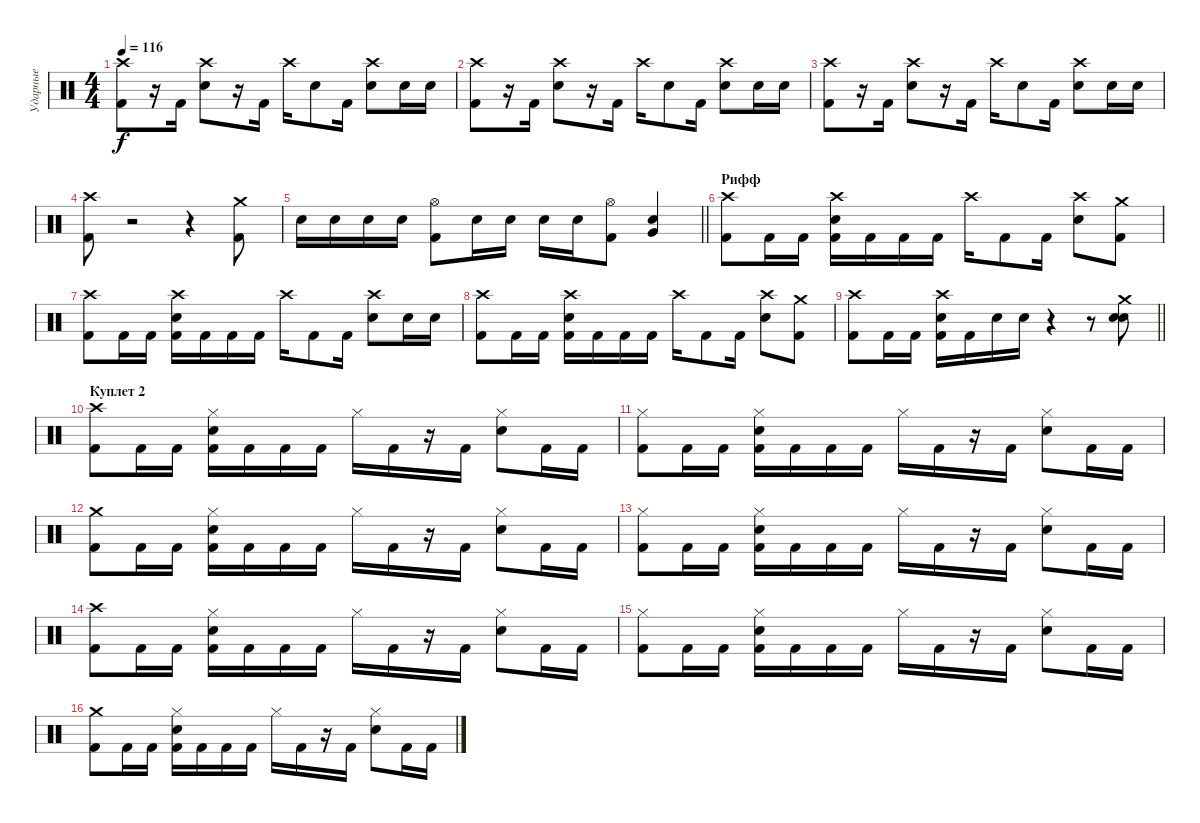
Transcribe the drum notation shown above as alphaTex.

\track ("Ударные" "Ударные") {instrument percussion}
\staff {score}
\articulation defaults
\ts (4 4)
\tempo 116
\clef neutral
\ks c
("Crash high (hit)" "Kick (hit) 2").8{dy f} r.16 "Kick (hit) 2".16 ("Crash high (hit)" "Snare (hit) 2").8 r.16 "Kick (hit) 2".16 "Crash high (hit)".16 "Snare (hit) 2".8 "Kick (hit) 2".16 ("Crash high (hit)" "Snare (hit) 2").8 "Snare (hit) 2".16 "Snare (hit) 2".16 |
("Crash high (hit)" "Kick (hit) 2").8 r.16 "Kick (hit) 2".16 ("Crash high (hit)" "Snare (hit) 2").8 r.16 "Kick (hit) 2".16 "Crash high (hit)".16 "Snare (hit) 2".8 "Kick (hit) 2".16 ("Crash high (hit)" "Snare (hit) 2").8 "Snare (hit) 2".16 "Snare (hit) 2".16 |
("Crash high (hit)" "Kick (hit) 2").8 r.16 "Kick (hit) 2".16 ("Crash high (hit)" "Snare (hit) 2").8 r.16 "Kick (hit) 2".16 "Crash high (hit)".16 "Snare (hit) 2".8 "Kick (hit) 2".16 ("Crash high (hit)" "Snare (hit) 2").8 "Snare (hit) 2".16 "Snare (hit) 2".16 |
("Crash high (hit)" "Kick (hit) 2").8 r.2 r.4 ("Crash medium (hit)" "Kick (hit) 2").8 |
\barLineRight lightlight "Snare (hit) 2".16 "Snare (hit) 2".16 "Snare (hit) 2".16 "Snare (hit) 2".16
("Hi-Hat (open)" "Kick (hit) 2").8 "Snare (hit) 2".16 "Snare (hit) 2".16 "Snare (hit) 2".16 "Snare (hit) 2".16 ("Hi-Hat (open)" "Kick (hit) 2").8 ("Very Low Tom (hit)" "Snare (hit) 2").4 |
\section ("" "Рифф")
("Crash high (hit)" "Kick (hit) 2").8 "Kick (hit) 2".16 "Kick (hit) 2".16 ("Crash high (hit)" "Snare (hit) 2" "Kick (hit) 2").16 "Kick (hit) 2".16 "Kick (hit) 2".16 "Kick (hit) 2".16 "Crash high (hit)".16 "Kick (hit) 2".8 "Kick (hit) 2".16 ("Crash high (hit)" "Snare (hit) 2").8 ("Crash medium (hit)" "Kick (hit) 2").8 |
("Crash high (hit)" "Kick (hit) 2").8 "Kick (hit) 2".16 "Kick (hit) 2".16 ("Crash high (hit)" "Snare (hit) 2" "Kick (hit) 2").16 "Kick (hit) 2".16 "Kick (hit) 2".16 "Kick (hit) 2".16 "Crash high (hit)".16 "Kick (hit) 2".8 "Kick (hit) 2".16 ("Crash high (hit)" "Snare (hit) 2").8 "Snare (hit) 2".16 "Snare (hit) 2".16 |
("Crash high (hit)" "Kick (hit) 2").8 "Kick (hit) 2".16 "Kick (hit) 2".16 ("Crash high (hit)" "Snare (hit) 2" "Kick (hit) 2").16 "Kick (hit) 2".16 "Kick (hit) 2".16 "Kick (hit) 2".16 "Crash high (hit)".16 "Kick (hit) 2".8 "Kick (hit) 2".16 ("Crash high (hit)" "Snare (hit) 2").8 ("Crash medium (hit)" "Kick (hit) 2").8 |
\barLineRight lightlight
("Crash high (hit)" "Kick (hit) 2").8 "Kick (hit) 2".16 "Kick (hit) 2".16 ("Crash high (hit)" "Snare (hit) 2" "Kick (hit) 2").16 "Kick (hit) 2".16 "Snare (hit) 2".16 "Snare (hit) 2".16 r.4 r.8 ("Crash medium (hit)" "Snare (hit) 2" "Snare (hit) 2").8 |
\section ("" "Куплет 2")
("Crash high (hit)" "Kick (hit) 2").8 "Kick (hit) 2".16 "Kick (hit) 2".16 ("Hi-Hat (closed)" "Snare (hit) 2" "Kick (hit) 2").16 "Kick (hit) 2".16 "Kick (hit) 2".16 "Kick (hit) 2".16 "Hi-Hat (closed)".16 "Kick (hit) 2".16 r.16 "Kick (hit) 2".16 ("Hi-Hat (closed)" "Snare (hit) 2").8 "Kick (hit) 2".16 "Kick (hit) 2".16 |
("Hi-Hat (closed)" "Kick (hit) 2").8 "Kick (hit) 2".16 "Kick (hit) 2".16 ("Hi-Hat (closed)" "Snare (hit) 2" "Kick (hit) 2").16 "Kick (hit) 2".16 "Kick (hit) 2".16 "Kick (hit) 2".16 "Hi-Hat (closed)".16 "Kick (hit) 2".16 r.16 "Kick (hit) 2".16 ("Hi-Hat (closed)" "Snare (hit) 2").8 "Kick (hit) 2".16 "Kick (hit) 2".16 |
("Crash medium (hit)" "Kick (hit) 2").8 "Kick (hit) 2".16 "Kick (hit) 2".16 ("Hi-Hat (closed)" "Snare (hit) 2" "Kick (hit) 2").16 "Kick (hit) 2".16 "Kick (hit) 2".16 "Kick (hit) 2".16 "Hi-Hat (closed)".16 "Kick (hit) 2".16 r.16 "Kick (hit) 2".16 ("Hi-Hat (closed)" "Snare (hit) 2").8 "Kick (hit) 2".16 "Kick (hit) 2".16 |
("Hi-Hat (closed)" "Kick (hit) 2").8 "Kick (hit) 2".16 "Kick (hit) 2".16 ("Hi-Hat (closed)" "Snare (hit) 2" "Kick (hit) 2").16 "Kick (hit) 2".16 "Kick (hit) 2".16 "Kick (hit) 2".16 "Hi-Hat (closed)".16 "Kick (hit) 2".16 r.16 "Kick (hit) 2".16 ("Hi-Hat (closed)" "Snare (hit) 2").8 "Kick (hit) 2".16 "Kick (hit) 2".16 |
("Crash high (hit)" "Kick (hit) 2").8 "Kick (hit) 2".16 "Kick (hit) 2".16 ("Hi-Hat (closed)" "Snare (hit) 2" "Kick (hit) 2").16 "Kick (hit) 2".16 "Kick (hit) 2".16 "Kick (hit) 2".16 "Hi-Hat (closed)".16 "Kick (hit) 2".16 r.16 "Kick (hit) 2".16 ("Hi-Hat (closed)" "Snare (hit) 2").8 "Kick (hit) 2".16 "Kick (hit) 2".16 |
("Hi-Hat (closed)" "Kick (hit) 2").8 "Kick (hit) 2".16 "Kick (hit) 2".16 ("Hi-Hat (closed)" "Snare (hit) 2" "Kick (hit) 2").16 "Kick (hit) 2".16 "Kick (hit) 2".16 "Kick (hit) 2".16 "Hi-Hat (closed)".16 "Kick (hit) 2".16 r.16 "Kick (hit) 2".16 ("Hi-Hat (closed)" "Snare (hit) 2").8 "Kick (hit) 2".16 "Kick (hit) 2".16 |
("Crash medium (hit)" "Kick (hit) 2").8 "Kick (hit) 2".16 "Kick (hit) 2".16 ("Hi-Hat (closed)" "Snare (hit) 2" "Kick (hit) 2").16 "Kick (hit) 2".16 "Kick (hit) 2".16 "Kick (hit) 2".16 "Hi-Hat (closed)".16 "Kick (hit) 2".16 r.16 "Kick (hit) 2".16 ("Hi-Hat (closed)" "Snare (hit) 2").8 "Kick (hit) 2".16 "Kick (hit) 2".16
